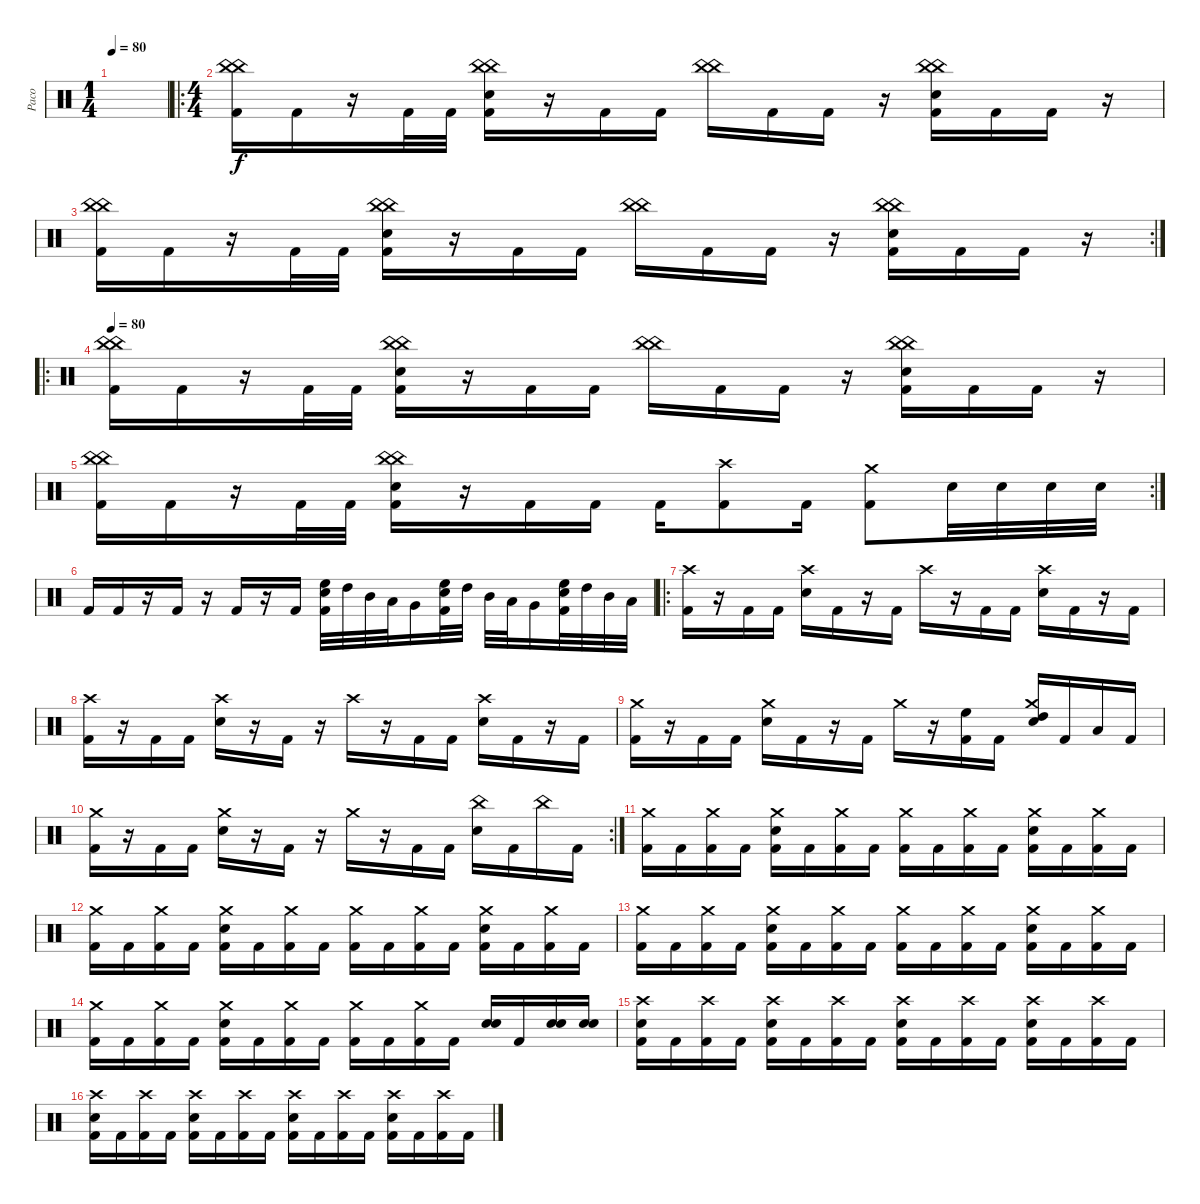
\track ("Paco" "Paco") {instrument percussion}
\staff {score}
\articulation defaults
\ts (1 4)
\tempo 80
\clef neutral
\ks c
|
\ro
\ts (4 4)
("China (hit)" "China (hit)" "Kick (hit) 2").16 "Kick (hit) 2".16 r.16 "Kick (hit) 2".32 "Kick (hit) 2".32 ("China (hit)" "China (hit)" "Electric Snare (hit)" "Kick (hit) 2").16 r.16 "Kick (hit) 2".16 "Kick (hit) 2".16 ("China (hit)" "China (hit)").16 "Kick (hit) 2".16 "Kick (hit) 2".16 r.16 ("China (hit)" "China (hit)" "Electric Snare (hit)" "Kick (hit) 2").16 "Kick (hit) 2".16 "Kick (hit) 2".16 r.16 |
\rc 2
("China (hit)" "China (hit)" "Kick (hit) 2").16 "Kick (hit) 2".16 r.16 "Kick (hit) 2".32 "Kick (hit) 2".32 ("China (hit)" "China (hit)" "Electric Snare (hit)" "Kick (hit) 2").16 r.16 "Kick (hit) 2".16 "Kick (hit) 2".16 ("China (hit)" "China (hit)").16 "Kick (hit) 2".16 "Kick (hit) 2".16 r.16 ("China (hit)" "China (hit)" "Electric Snare (hit)" "Kick (hit) 2").16 "Kick (hit) 2".16 "Kick (hit) 2".16 r.16 |
\ro
\tempo 80
("China (hit)" "China (hit)" "Kick (hit) 2").16 "Kick (hit) 2".16 r.16 "Kick (hit) 2".32 "Kick (hit) 2".32 ("China (hit)" "China (hit)" "Electric Snare (hit)" "Kick (hit) 2").16 r.16 "Kick (hit) 2".16 "Kick (hit) 2".16 ("China (hit)" "China (hit)").16 "Kick (hit) 2".16 "Kick (hit) 2".16 r.16 ("China (hit)" "China (hit)" "Electric Snare (hit)" "Kick (hit) 2").16 "Kick (hit) 2".16 "Kick (hit) 2".16 r.16 |
\rc 2
("China (hit)" "China (hit)" "Kick (hit) 2").16 "Kick (hit) 2".16 r.16 "Kick (hit) 2".32 "Kick (hit) 2".32 ("China (hit)" "China (hit)" "Electric Snare (hit)" "Kick (hit) 2").16 r.16 "Kick (hit) 2".16 "Kick (hit) 2".16 "Kick (hit) 2".16 ("Crash high (hit)" "Kick (hit) 2").8 "Kick (hit) 2".16 ("Crash medium (hit)" "Kick (hit) 2").8 "Electric Snare (hit)".32 "Electric Snare (hit)".32 "Electric Snare (hit)".32 "Electric Snare (hit)".32 |
"Kick (hit) 2".16 "Kick (hit) 2".16 r.16 "Kick (hit) 2".16 r.16 "Kick (hit) 2".16 r.16 "Kick (hit) 2".16 ("High Floor Tom (hit)" "Electric Snare (hit)" "Kick (hit) 2").32 "High Tom (hit)".32 "Mid Tom (hit)".32 "Low Tom (hit)".32 "Very Low Tom (hit)".16 ("High Floor Tom (hit)" "Electric Snare (hit)" "Kick (hit) 2").32 "High Tom (hit)".32 "Mid Tom (hit)".32 "Low Tom (hit)".32 "Very Low Tom (hit)".16 ("High Floor Tom (hit)" "Electric Snare (hit)" "Kick (hit) 2").32 "High Tom (hit)".32 "Mid Tom (hit)".32 "Low Tom (hit)".32 |
\ro
("Crash high (hit)" "Kick (hit) 2").16 r.16 "Kick (hit) 2".16 "Kick (hit) 2".16 ("Crash high (hit)" "Electric Snare (hit)").16 "Kick (hit) 2".16 r.16 "Kick (hit) 2".16 "Crash high (hit)".16 r.16 "Kick (hit) 2".16 "Kick (hit) 2".16 ("Crash high (hit)" "Electric Snare (hit)").16 "Kick (hit) 2".16 r.16 "Kick (hit) 2".16 |
("Crash high (hit)" "Kick (hit) 2").16 r.16 "Kick (hit) 2".16 "Kick (hit) 2".16 ("Crash high (hit)" "Electric Snare (hit)").16 r.16 "Kick (hit) 2".16 r.16 "Crash high (hit)".16 r.16 "Kick (hit) 2".16 "Kick (hit) 2".16 ("Crash high (hit)" "Electric Snare (hit)").16 "Kick (hit) 2".16 r.16 "Kick (hit) 2".16 |
("Crash medium (hit)" "Kick (hit) 2").16 r.16 "Kick (hit) 2".16 "Kick (hit) 2".16 ("Crash medium (hit)" "Electric Snare (hit)").16 "Kick (hit) 2".16 r.16 "Kick (hit) 2".16 "Crash medium (hit)".16 r.16 ("High Floor Tom (hit)" "Kick (hit) 2").16 "Kick (hit) 2".16 ("Crash medium (hit)" "High Tom (hit)" "Electric Snare (hit)").16 "Kick (hit) 2".16 "Low Tom (hit)".16 "Kick (hit) 2".16 |
\rc 2
("Crash medium (hit)" "Kick (hit) 2").16 r.16 "Kick (hit) 2".16 "Kick (hit) 2".16 ("Crash medium (hit)" "Electric Snare (hit)").16 r.16 "Kick (hit) 2".16 r.16 "Crash medium (hit)".16 r.16 "Kick (hit) 2".16 "Kick (hit) 2".16 ("China (hit)" "Electric Snare (hit)").16 "Kick (hit) 2".16 "China (hit)".16 "Kick (hit) 2".16 |
("Crash medium (hit)" "Kick (hit) 2").16 "Kick (hit) 2".16 ("Crash medium (hit)" "Kick (hit) 2").16 "Kick (hit) 2".16 ("Crash medium (hit)" "Electric Snare (hit)" "Kick (hit) 2").16 "Kick (hit) 2".16 ("Crash medium (hit)" "Kick (hit) 2").16 "Kick (hit) 2".16 ("Crash medium (hit)" "Kick (hit) 2").16 "Kick (hit) 2".16 ("Crash medium (hit)" "Kick (hit) 2").16 "Kick (hit) 2".16 ("Crash medium (hit)" "Electric Snare (hit)" "Kick (hit) 2").16 "Kick (hit) 2".16 ("Crash medium (hit)" "Kick (hit) 2").16 "Kick (hit) 2".16 |
("Crash medium (hit)" "Kick (hit) 2").16 "Kick (hit) 2".16 ("Crash medium (hit)" "Kick (hit) 2").16 "Kick (hit) 2".16 ("Crash medium (hit)" "Electric Snare (hit)" "Kick (hit) 2").16 "Kick (hit) 2".16 ("Crash medium (hit)" "Kick (hit) 2").16 "Kick (hit) 2".16 ("Crash medium (hit)" "Kick (hit) 2").16 "Kick (hit) 2".16 ("Crash medium (hit)" "Kick (hit) 2").16 "Kick (hit) 2".16 ("Crash medium (hit)" "Electric Snare (hit)" "Kick (hit) 2").16 "Kick (hit) 2".16 ("Crash medium (hit)" "Kick (hit) 2").16 "Kick (hit) 2".16 |
("Crash medium (hit)" "Kick (hit) 2").16 "Kick (hit) 2".16 ("Crash medium (hit)" "Kick (hit) 2").16 "Kick (hit) 2".16 ("Crash medium (hit)" "Electric Snare (hit)" "Kick (hit) 2").16 "Kick (hit) 2".16 ("Crash medium (hit)" "Kick (hit) 2").16 "Kick (hit) 2".16 ("Crash medium (hit)" "Kick (hit) 2").16 "Kick (hit) 2".16 ("Crash medium (hit)" "Kick (hit) 2").16 "Kick (hit) 2".16 ("Crash medium (hit)" "Electric Snare (hit)" "Kick (hit) 2").16 "Kick (hit) 2".16 ("Crash medium (hit)" "Kick (hit) 2").16 "Kick (hit) 2".16 |
("Crash medium (hit)" "Kick (hit) 2").16 "Kick (hit) 2".16 ("Crash medium (hit)" "Kick (hit) 2").16 "Kick (hit) 2".16 ("Crash medium (hit)" "Electric Snare (hit)" "Kick (hit) 2").16 "Kick (hit) 2".16 ("Crash medium (hit)" "Kick (hit) 2").16 "Kick (hit) 2".16 ("Crash medium (hit)" "Kick (hit) 2").16 "Kick (hit) 2".16 ("Crash medium (hit)" "Kick (hit) 2").16 "Kick (hit) 2".16 ("Electric Snare (hit)" "Electric Snare (hit)").16 "Kick (hit) 2".16 ("Electric Snare (hit)" "Electric Snare (hit)").16 ("Electric Snare (hit)" "Electric Snare (hit)").16 |
("Crash high (hit)" "Electric Snare (hit)" "Kick (hit) 2").16 "Kick (hit) 2".16 ("Crash high (hit)" "Kick (hit) 2").16 "Kick (hit) 2".16 ("Crash high (hit)" "Electric Snare (hit)" "Kick (hit) 2").16 "Kick (hit) 2".16 ("Crash high (hit)" "Kick (hit) 2").16 "Kick (hit) 2".16 ("Crash high (hit)" "Electric Snare (hit)" "Kick (hit) 2").16 "Kick (hit) 2".16 ("Crash high (hit)" "Kick (hit) 2").16 "Kick (hit) 2".16 ("Crash high (hit)" "Electric Snare (hit)" "Kick (hit) 2").16 "Kick (hit) 2".16 ("Crash high (hit)" "Kick (hit) 2").16 "Kick (hit) 2".16 |
("Crash high (hit)" "Electric Snare (hit)" "Kick (hit) 2").16 "Kick (hit) 2".16 ("Crash high (hit)" "Kick (hit) 2").16 "Kick (hit) 2".16 ("Crash high (hit)" "Electric Snare (hit)" "Kick (hit) 2").16 "Kick (hit) 2".16 ("Crash high (hit)" "Kick (hit) 2").16 "Kick (hit) 2".16 ("Crash high (hit)" "Electric Snare (hit)" "Kick (hit) 2").16 "Kick (hit) 2".16 ("Crash high (hit)" "Kick (hit) 2").16 "Kick (hit) 2".16 ("Crash high (hit)" "Electric Snare (hit)" "Kick (hit) 2").16 "Kick (hit) 2".16 ("Crash high (hit)" "Kick (hit) 2").16 "Kick (hit) 2".16
